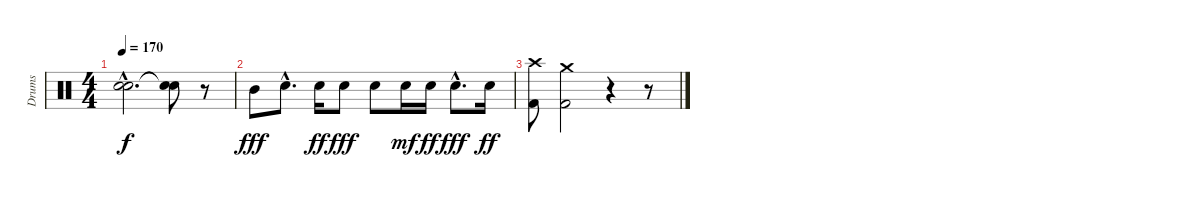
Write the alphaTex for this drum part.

\track ("Drums" "Drums") {instrument percussion}
\staff {score}
\articulation defaults
\ts (4 4)
\tempo 170
\clef neutral
\ks c
("Snare (hit)"{hac t} "Snare (hit)"{hac t}).2{d dy f} ("Snare (hit)"{t} "Snare (hit)"{t}).8 r.8 |
"Mid Tom (hit)".8{dy fff} "Snare (hit) 2"{hac}.8{d} "Snare (hit) 2".16{dy ff} "Snare (hit) 2".8{dy fff} "Snare (hit) 2".8 "Snare (hit) 2".16{dy mf} "Snare (hit) 2".16{dy ff} "Snare (hit) 2"{hac}.8{d dy fff} "Snare (hit) 2".16{dy ff} |
("Kick (hit) 2" "Crash high (hit)").8 ("Kick (hit) 2" "Crash medium (hit)").2 r.4 r.8
